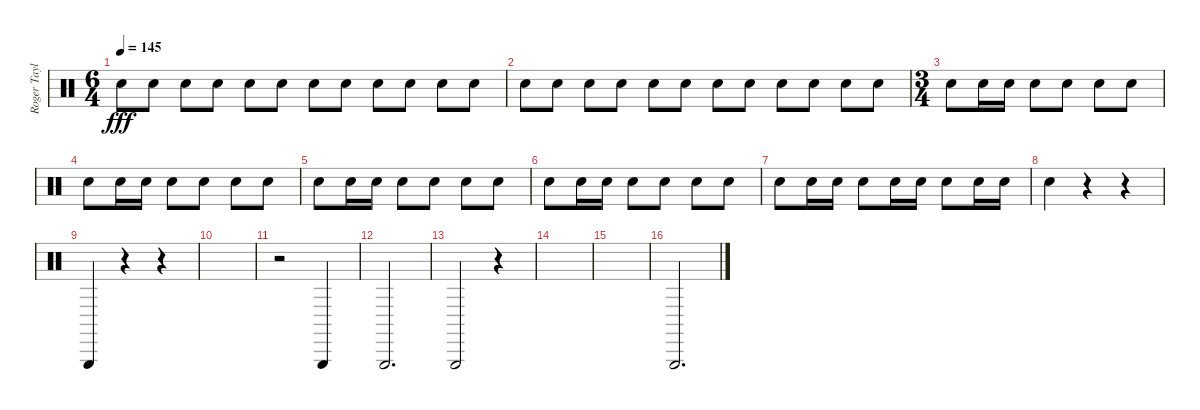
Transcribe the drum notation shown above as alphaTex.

\track ("Roger Taylor" "Roger Tayl") {instrument percussion}
\staff {score}
\articulation defaults
\ts (6 4)
\tempo 145
\clef neutral
\ks c "Hand Clap (hit)".8{dy fff} "Hand Clap (hit)".8 "Hand Clap (hit)".8 "Hand Clap (hit)".8 "Hand Clap (hit)".8 "Hand Clap (hit)".8 "Hand Clap (hit)".8 "Hand Clap (hit)".8 "Hand Clap (hit)".8 "Hand Clap (hit)".8 "Hand Clap (hit)".8 "Hand Clap (hit)".8
|
"Hand Clap (hit)".8 "Hand Clap (hit)".8 "Hand Clap (hit)".8 "Hand Clap (hit)".8 "Hand Clap (hit)".8 "Hand Clap (hit)".8 "Hand Clap (hit)".8 "Hand Clap (hit)".8 "Hand Clap (hit)".8 "Hand Clap (hit)".8 "Hand Clap (hit)".8 "Hand Clap (hit)".8 |
\ts (3 4)
"Hand Clap (hit)".8 "Hand Clap (hit)".16 "Hand Clap (hit)".16 "Hand Clap (hit)".8 "Hand Clap (hit)".8 "Hand Clap (hit)".8 "Hand Clap (hit)".8 |
"Hand Clap (hit)".8 "Hand Clap (hit)".16 "Hand Clap (hit)".16 "Hand Clap (hit)".8 "Hand Clap (hit)".8 "Hand Clap (hit)".8 "Hand Clap (hit)".8 |
"Hand Clap (hit)".8 "Hand Clap (hit)".16 "Hand Clap (hit)".16 "Hand Clap (hit)".8 "Hand Clap (hit)".8 "Hand Clap (hit)".8 "Hand Clap (hit)".8 |
"Hand Clap (hit)".8 "Hand Clap (hit)".16 "Hand Clap (hit)".16 "Hand Clap (hit)".8 "Hand Clap (hit)".8 "Hand Clap (hit)".8 "Hand Clap (hit)".8 |
"Hand Clap (hit)".8 "Hand Clap (hit)".16 "Hand Clap (hit)".16 "Hand Clap (hit)".8 "Hand Clap (hit)".16 "Hand Clap (hit)".16 "Hand Clap (hit)".8 "Hand Clap (hit)".16 "Hand Clap (hit)".16 |
"Hand Clap (hit)".4 r.4 r.4 |
"Triangle (hit)".4 r.4 r.4 |
|
r.2 "Triangle (hit)".4 |
"Triangle (hit)".2{d} |
"Triangle (hit)".2 r.4 |
|
|
"Triangle (hit)".2{d}
